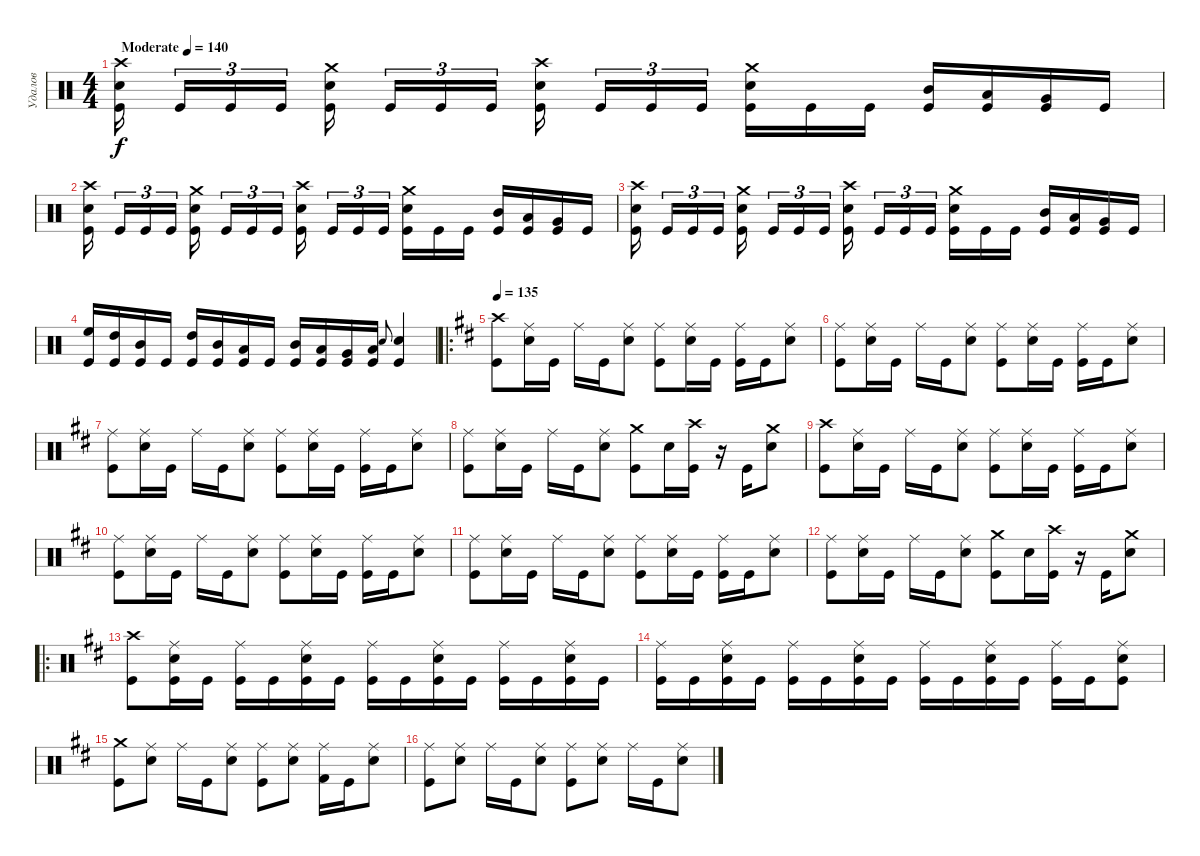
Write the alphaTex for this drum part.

\track ("Удалов" "Удалов") {instrument percussion}
\staff {score}
\articulation defaults
\ts (4 4)
\tempo (140 "Moderate")
\clef neutral
\ks c
("Kick (hit)" "Electric Snare (hit)" "Crash high (hit)").16{dy f beam splitsecondary} "Kick (hit)".16{tu (3 2)} "Kick (hit)".16{tu (3 2)} "Kick (hit)".16{tu (3 2) beam splitsecondary} ("Kick (hit)" "Electric Snare (hit)" "Crash medium (hit)").16 "Kick (hit)".16{tu (3 2)} "Kick (hit)".16{tu (3 2)} "Kick (hit)".16{tu (3 2) beam splitsecondary} ("Kick (hit)" "Electric Snare (hit)" "Crash high (hit)").16{beam splitsecondary} "Kick (hit)".16{tu (3 2)} "Kick (hit)".16{tu (3 2)} "Kick (hit)".16{tu (3 2) beam splitsecondary} ("Kick (hit)" "Electric Snare (hit)" "Crash medium (hit)").16 "Kick (hit)".16 "Kick (hit)".16 ("Kick (hit)" "Mid Tom (hit)").16 ("Kick (hit)" "Low Tom (hit)").16 ("Kick (hit)" "Very Low Tom (hit)").16 "Kick (hit)".16 |
("Kick (hit)" "Electric Snare (hit)" "Crash high (hit)").16{beam splitsecondary} "Kick (hit)".16{tu (3 2)} "Kick (hit)".16{tu (3 2)} "Kick (hit)".16{tu (3 2) beam splitsecondary} ("Kick (hit)" "Electric Snare (hit)" "Crash medium (hit)").16 "Kick (hit)".16{tu (3 2)} "Kick (hit)".16{tu (3 2)} "Kick (hit)".16{tu (3 2) beam splitsecondary} ("Kick (hit)" "Electric Snare (hit)" "Crash high (hit)").16{beam splitsecondary} "Kick (hit)".16{tu (3 2)} "Kick (hit)".16{tu (3 2)} "Kick (hit)".16{tu (3 2) beam splitsecondary} ("Kick (hit)" "Electric Snare (hit)" "Crash medium (hit)").16 "Kick (hit)".16 "Kick (hit)".16 ("Kick (hit)" "Mid Tom (hit)").16 ("Kick (hit)" "Low Tom (hit)").16 ("Kick (hit)" "Very Low Tom (hit)").16 "Kick (hit)".16 |
("Kick (hit)" "Electric Snare (hit)" "Crash high (hit)").16{beam splitsecondary} "Kick (hit)".16{tu (3 2)} "Kick (hit)".16{tu (3 2)} "Kick (hit)".16{tu (3 2) beam splitsecondary} ("Kick (hit)" "Electric Snare (hit)" "Crash medium (hit)").16 "Kick (hit)".16{tu (3 2)} "Kick (hit)".16{tu (3 2)} "Kick (hit)".16{tu (3 2) beam splitsecondary} ("Kick (hit)" "Electric Snare (hit)" "Crash high (hit)").16{beam splitsecondary} "Kick (hit)".16{tu (3 2)} "Kick (hit)".16{tu (3 2)} "Kick (hit)".16{tu (3 2) beam splitsecondary} ("Kick (hit)" "Electric Snare (hit)" "Crash medium (hit)").16 "Kick (hit)".16 "Kick (hit)".16 ("Kick (hit)" "Mid Tom (hit)").16 ("Kick (hit)" "Low Tom (hit)").16 ("Kick (hit)" "Very Low Tom (hit)").16 "Kick (hit)".16 |
("Kick (hit)" "High Floor Tom (hit)").16 ("Kick (hit)" "High Tom (hit)").16 ("Kick (hit)" "Mid Tom (hit)").16 "Kick (hit)".16 ("Kick (hit)" "High Tom (hit)").16 ("Kick (hit)" "Mid Tom (hit)").16 ("Kick (hit)" "Low Tom (hit)").16 "Kick (hit)".16 ("Kick (hit)" "Mid Tom (hit)").16 ("Kick (hit)" "Low Tom (hit)").16 ("Kick (hit)" "Very Low Tom (hit)").16 ("Kick (hit)" "Low Floor Tom (hit)").16 "Electric Snare (hit)".8{gr onbeat} ("Kick (hit)" "Electric Snare (hit)").4 |
\ro
\tempo 135
\ks d
("Crash high (hit)" "Kick (hit)").8 ("Ride (middle)" "Electric Snare (hit)").16 "Kick (hit)".16 "Ride (middle)".16 "Kick (hit)".16 ("Electric Snare (hit)" "Ride (middle)").8 ("Kick (hit)" "Ride (middle)").8 ("Electric Snare (hit)" "Ride (middle)").16 "Kick (hit)".16 ("Kick (hit)" "Ride (middle)").16 "Kick (hit)".16 ("Electric Snare (hit)" "Ride (middle)").8 |
("Ride (middle)" "Kick (hit)").8 ("Ride (middle)" "Electric Snare (hit)").16 "Kick (hit)".16 "Ride (middle)".16 "Kick (hit)".16 ("Electric Snare (hit)" "Ride (middle)").8 ("Kick (hit)" "Ride (middle)").8 ("Electric Snare (hit)" "Ride (middle)").16 "Kick (hit)".16 ("Kick (hit)" "Ride (middle)").16 "Kick (hit)".16 ("Electric Snare (hit)" "Ride (middle)").8 |
("Ride (middle)" "Kick (hit)").8 ("Ride (middle)" "Electric Snare (hit)").16 "Kick (hit)".16 "Ride (middle)".16 "Kick (hit)".16 ("Electric Snare (hit)" "Ride (middle)").8 ("Kick (hit)" "Ride (middle)").8 ("Electric Snare (hit)" "Ride (middle)").16 "Kick (hit)".16 ("Kick (hit)" "Ride (middle)").16 "Kick (hit)".16 ("Electric Snare (hit)" "Ride (middle)").8 |
("Ride (middle)" "Kick (hit)").8 ("Ride (middle)" "Electric Snare (hit)").16 "Kick (hit)".16 "Ride (middle)".16 "Kick (hit)".16 ("Electric Snare (hit)" "Ride (middle)").8 ("Kick (hit)" "Crash medium (hit)").8 "Electric Snare (hit)".16 ("Kick (hit)" "Crash high (hit)").16 r.16 "Kick (hit)".16 ("Electric Snare (hit)" "Crash medium (hit)").8 |
("Crash high (hit)" "Kick (hit)").8 ("Ride (middle)" "Electric Snare (hit)").16 "Kick (hit)".16 "Ride (middle)".16 "Kick (hit)".16 ("Electric Snare (hit)" "Ride (middle)").8 ("Kick (hit)" "Ride (middle)").8 ("Electric Snare (hit)" "Ride (middle)").16 "Kick (hit)".16 ("Kick (hit)" "Ride (middle)").16 "Kick (hit)".16 ("Electric Snare (hit)" "Ride (middle)").8 |
("Ride (middle)" "Kick (hit)").8 ("Ride (middle)" "Electric Snare (hit)").16 "Kick (hit)".16 "Ride (middle)".16 "Kick (hit)".16 ("Electric Snare (hit)" "Ride (middle)").8 ("Kick (hit)" "Ride (middle)").8 ("Electric Snare (hit)" "Ride (middle)").16 "Kick (hit)".16 ("Kick (hit)" "Ride (middle)").16 "Kick (hit)".16 ("Electric Snare (hit)" "Ride (middle)").8 |
("Ride (middle)" "Kick (hit)").8 ("Ride (middle)" "Electric Snare (hit)").16 "Kick (hit)".16 "Ride (middle)".16 "Kick (hit)".16 ("Electric Snare (hit)" "Ride (middle)").8 ("Kick (hit)" "Ride (middle)").8 ("Electric Snare (hit)" "Ride (middle)").16 "Kick (hit)".16 ("Kick (hit)" "Ride (middle)").16 "Kick (hit)".16 ("Electric Snare (hit)" "Ride (middle)").8 |
("Ride (middle)" "Kick (hit)").8 ("Ride (middle)" "Electric Snare (hit)").16 "Kick (hit)".16 "Ride (middle)".16 "Kick (hit)".16 ("Electric Snare (hit)" "Ride (middle)").8 ("Kick (hit)" "Crash medium (hit)").8 "Electric Snare (hit)".16 ("Kick (hit)" "Crash high (hit)").16 r.16 "Kick (hit)".16 ("Electric Snare (hit)" "Crash medium (hit)").8 |
\ro
("Kick (hit)" "Crash high (hit)").8 ("Kick (hit)" "Ride (middle)" "Electric Snare (hit)").16 "Kick (hit)".16 ("Kick (hit)" "Ride (middle)").16 "Kick (hit)".16 ("Kick (hit)" "Ride (middle)" "Electric Snare (hit)").16 "Kick (hit)".16 ("Kick (hit)" "Ride (middle)").16 "Kick (hit)".16 ("Kick (hit)" "Ride (middle)" "Electric Snare (hit)").16 "Kick (hit)".16 ("Kick (hit)" "Ride (middle)").16 "Kick (hit)".16 ("Kick (hit)" "Ride (middle)" "Electric Snare (hit)").16 "Kick (hit)".16 |
("Kick (hit)" "Ride (middle)").16 "Kick (hit)".16 ("Kick (hit)" "Ride (middle)" "Electric Snare (hit)").16 "Kick (hit)".16 ("Kick (hit)" "Ride (middle)").16 "Kick (hit)".16 ("Kick (hit)" "Ride (middle)" "Electric Snare (hit)").16 "Kick (hit)".16 ("Kick (hit)" "Ride (middle)").16 "Kick (hit)".16 ("Kick (hit)" "Ride (middle)" "Electric Snare (hit)").16 "Kick (hit)".16 ("Kick (hit)" "Ride (middle)").16 "Kick (hit)".16 ("Kick (hit)" "Ride (middle)" "Electric Snare (hit)").8 |
("Kick (hit)" "Crash medium (hit)").8 ("Electric Snare (hit)" "Ride (middle)").8 "Ride (middle)".16 "Kick (hit)".16 ("Electric Snare (hit)" "Ride (middle)").8 ("Kick (hit)" "Ride (middle)").8 ("Ride (middle)" "Electric Snare (hit)").8 ("Kick (hit) 2" "Ride (middle)").16 "Kick (hit)".16 ("Electric Snare (hit)" "Ride (middle)").8 |
("Kick (hit)" "Ride (middle)").8 ("Electric Snare (hit)" "Ride (middle)").8 "Ride (middle)".16 "Kick (hit)".16 ("Electric Snare (hit)" "Ride (middle)").8 ("Kick (hit)" "Ride (middle)").8 ("Electric Snare (hit)" "Ride (middle)").8 "Ride (middle)".16 "Kick (hit)".16 ("Electric Snare (hit)" "Ride (middle)").8
